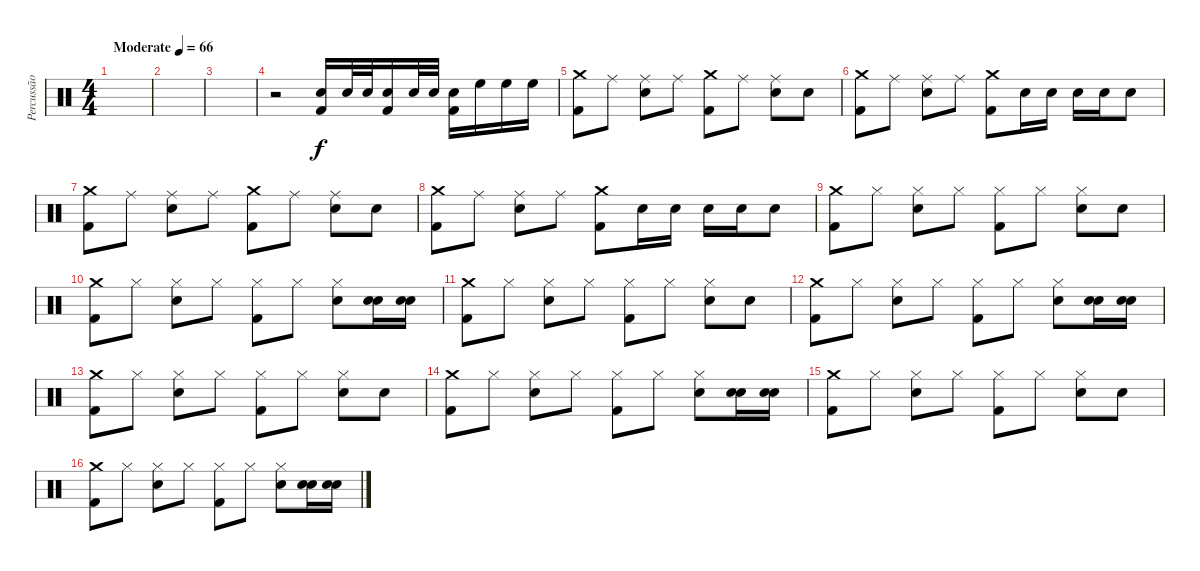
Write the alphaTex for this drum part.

\track ("Percussão" "Percussão") {instrument percussion}
\staff {score}
\articulation defaults
\ts (4 4)
\tempo (66 "Moderate")
\clef neutral
\ks c
|
|
|
r.2 ("Snare (hit) 2" "Kick (hit) 2").16 "Snare (hit) 2".32 "Snare (hit) 2".32 ("Snare (hit) 2" "Kick (hit) 2").16 "Snare (hit) 2".32 "Snare (hit) 2".32 ("Snare (hit) 2" "Kick (hit) 2").16 "High Floor Tom (hit)".16 "High Floor Tom (hit)".16 "High Floor Tom (hit)".16 |
("Crash medium (hit)" "Kick (hit) 2").8 "Ride (middle)".8 ("Ride (middle)" "Snare (hit) 2").8 "Ride (middle)".8 ("Crash medium (hit)" "Kick (hit) 2").8 "Ride (middle)".8 ("Ride (middle)" "Snare (hit) 2").8 "Snare (hit) 2".8 |
("Crash medium (hit)" "Kick (hit) 2").8 "Ride (middle)".8 ("Ride (middle)" "Snare (hit) 2").8 "Ride (middle)".8 ("Crash medium (hit)" "Kick (hit) 2").8 "Snare (hit) 2".16 "Snare (hit) 2".16 "Snare (hit) 2".16 "Snare (hit) 2".16 "Snare (hit) 2".8 |
("Crash medium (hit)" "Kick (hit) 2").8 "Ride (middle)".8 ("Ride (middle)" "Snare (hit) 2").8 "Ride (middle)".8 ("Crash medium (hit)" "Kick (hit) 2").8 "Ride (middle)".8 ("Ride (middle)" "Snare (hit) 2").8 "Snare (hit) 2".8 |
("Crash medium (hit)" "Kick (hit) 2").8 "Ride (middle)".8 ("Ride (middle)" "Snare (hit) 2").8 "Ride (middle)".8 ("Crash medium (hit)" "Kick (hit) 2").8 "Snare (hit) 2".16 "Snare (hit) 2".16 "Snare (hit) 2".16 "Snare (hit) 2".16 "Snare (hit) 2".8 |
("Crash medium (hit)" "Kick (hit) 2").8 "Hi-Hat (closed)".8 ("Hi-Hat (closed)" "Snare (hit) 2").8 "Hi-Hat (closed)".8 ("Hi-Hat (closed)" "Kick (hit) 2").8 "Hi-Hat (closed)".8 ("Hi-Hat (closed)" "Snare (hit) 2").8 "Snare (hit) 2".8 |
("Crash medium (hit)" "Kick (hit) 2").8 "Hi-Hat (closed)".8 ("Hi-Hat (closed)" "Snare (hit) 2").8 "Hi-Hat (closed)".8 ("Hi-Hat (closed)" "Kick (hit) 2").8 "Hi-Hat (closed)".8 ("Hi-Hat (closed)" "Snare (hit) 2").8 ("Snare (hit) 2" "Snare (hit) 2").16{bu 240} ("Snare (hit) 2" "Snare (hit) 2").16{bu 240} |
("Crash medium (hit)" "Kick (hit) 2").8 "Hi-Hat (closed)".8 ("Hi-Hat (closed)" "Snare (hit) 2").8 "Hi-Hat (closed)".8 ("Hi-Hat (closed)" "Kick (hit) 2").8 "Hi-Hat (closed)".8 ("Hi-Hat (closed)" "Snare (hit) 2").8 "Snare (hit) 2".8 |
("Crash medium (hit)" "Kick (hit) 2").8 "Hi-Hat (closed)".8 ("Hi-Hat (closed)" "Snare (hit) 2").8 "Hi-Hat (closed)".8 ("Hi-Hat (closed)" "Kick (hit) 2").8 "Hi-Hat (closed)".8 ("Hi-Hat (closed)" "Snare (hit) 2").8 ("Snare (hit) 2" "Snare (hit) 2").16{bu 240} ("Snare (hit) 2" "Snare (hit) 2").16{bu 240} |
("Crash medium (hit)" "Kick (hit) 2").8 "Hi-Hat (closed)".8 ("Hi-Hat (closed)" "Snare (hit) 2").8 "Hi-Hat (closed)".8 ("Hi-Hat (closed)" "Kick (hit) 2").8 "Hi-Hat (closed)".8 ("Hi-Hat (closed)" "Snare (hit) 2").8 "Snare (hit) 2".8 |
("Crash medium (hit)" "Kick (hit) 2").8 "Hi-Hat (closed)".8 ("Hi-Hat (closed)" "Snare (hit) 2").8 "Hi-Hat (closed)".8 ("Hi-Hat (closed)" "Kick (hit) 2").8 "Hi-Hat (closed)".8 ("Hi-Hat (closed)" "Snare (hit) 2").8 ("Snare (hit) 2" "Snare (hit) 2").16{bu 240} ("Snare (hit) 2" "Snare (hit) 2").16{bu 240} |
("Crash medium (hit)" "Kick (hit) 2").8 "Hi-Hat (closed)".8 ("Hi-Hat (closed)" "Snare (hit) 2").8 "Hi-Hat (closed)".8 ("Hi-Hat (closed)" "Kick (hit) 2").8 "Hi-Hat (closed)".8 ("Hi-Hat (closed)" "Snare (hit) 2").8 "Snare (hit) 2".8 |
("Crash medium (hit)" "Kick (hit) 2").8 "Hi-Hat (closed)".8 ("Hi-Hat (closed)" "Snare (hit) 2").8 "Hi-Hat (closed)".8 ("Hi-Hat (closed)" "Kick (hit) 2").8 "Hi-Hat (closed)".8 ("Hi-Hat (closed)" "Snare (hit) 2").8 ("Snare (hit) 2" "Snare (hit) 2").16{bu 240} ("Snare (hit) 2" "Snare (hit) 2").16{bu 240}
